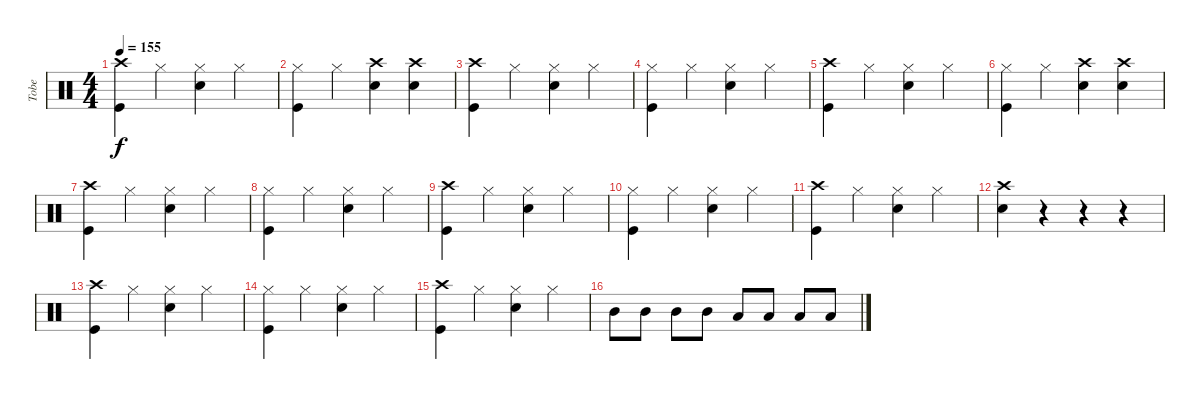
\track ("Tobe" "Tobe") {instrument percussion}
\staff {score}
\articulation defaults
\ts (4 4)
\tempo 155
\clef neutral
\ks c
("Crash high (hit)" "Kick (hit)").4{dy f} "Hi-Hat (closed)".4 ("Hi-Hat (closed)" "Electric Snare (hit)").4 "Hi-Hat (closed)".4 |
("Hi-Hat (closed)" "Kick (hit)").4 "Hi-Hat (closed)".4 ("Crash high (hit)" "Electric Snare (hit)").4 ("Crash high (hit)" "Electric Snare (hit)").4 |
("Crash high (hit)" "Kick (hit)").4 "Hi-Hat (closed)".4 ("Hi-Hat (closed)" "Electric Snare (hit)").4 "Hi-Hat (closed)".4 |
("Hi-Hat (closed)" "Kick (hit)").4 "Hi-Hat (closed)".4 ("Hi-Hat (closed)" "Electric Snare (hit)").4 "Hi-Hat (closed)".4 |
("Crash high (hit)" "Kick (hit)").4 "Hi-Hat (closed)".4 ("Hi-Hat (closed)" "Electric Snare (hit)").4 "Hi-Hat (closed)".4 |
("Hi-Hat (closed)" "Kick (hit)").4 "Hi-Hat (closed)".4 ("Crash high (hit)" "Electric Snare (hit)").4 ("Crash high (hit)" "Electric Snare (hit)").4 |
("Crash high (hit)" "Kick (hit)").4 "Hi-Hat (closed)".4 ("Hi-Hat (closed)" "Electric Snare (hit)").4 "Hi-Hat (closed)".4 |
("Hi-Hat (closed)" "Kick (hit)").4 "Hi-Hat (closed)".4 ("Hi-Hat (closed)" "Electric Snare (hit)").4 "Hi-Hat (closed)".4 |
("Crash high (hit)" "Kick (hit)").4 "Hi-Hat (closed)".4 ("Hi-Hat (closed)" "Electric Snare (hit)").4 "Hi-Hat (closed)".4 |
("Hi-Hat (closed)" "Kick (hit)").4 "Hi-Hat (closed)".4 ("Hi-Hat (closed)" "Electric Snare (hit)").4 "Hi-Hat (closed)".4 |
("Crash high (hit)" "Kick (hit)").4 "Hi-Hat (closed)".4 ("Hi-Hat (closed)" "Electric Snare (hit)").4 "Hi-Hat (closed)".4 |
("Crash high (hit)" "Electric Snare (hit)").4 r.4 r.4 r.4 |
("Crash high (hit)" "Kick (hit)").4 "Hi-Hat (closed)".4 ("Hi-Hat (closed)" "Electric Snare (hit)").4 "Hi-Hat (closed)".4 |
("Hi-Hat (closed)" "Kick (hit)").4 "Hi-Hat (closed)".4 ("Hi-Hat (closed)" "Electric Snare (hit)").4 "Hi-Hat (closed)".4 |
("Crash high (hit)" "Kick (hit)").4 "Hi-Hat (closed)".4 ("Hi-Hat (closed)" "Electric Snare (hit)").4 "Hi-Hat (closed)".4 |
"Mid Tom (hit)".8 "Mid Tom (hit)".8 "Mid Tom (hit)".8 "Mid Tom (hit)".8 "Low Tom (hit)".8 "Low Tom (hit)".8 "Low Tom (hit)".8 "Low Tom (hit)".8
